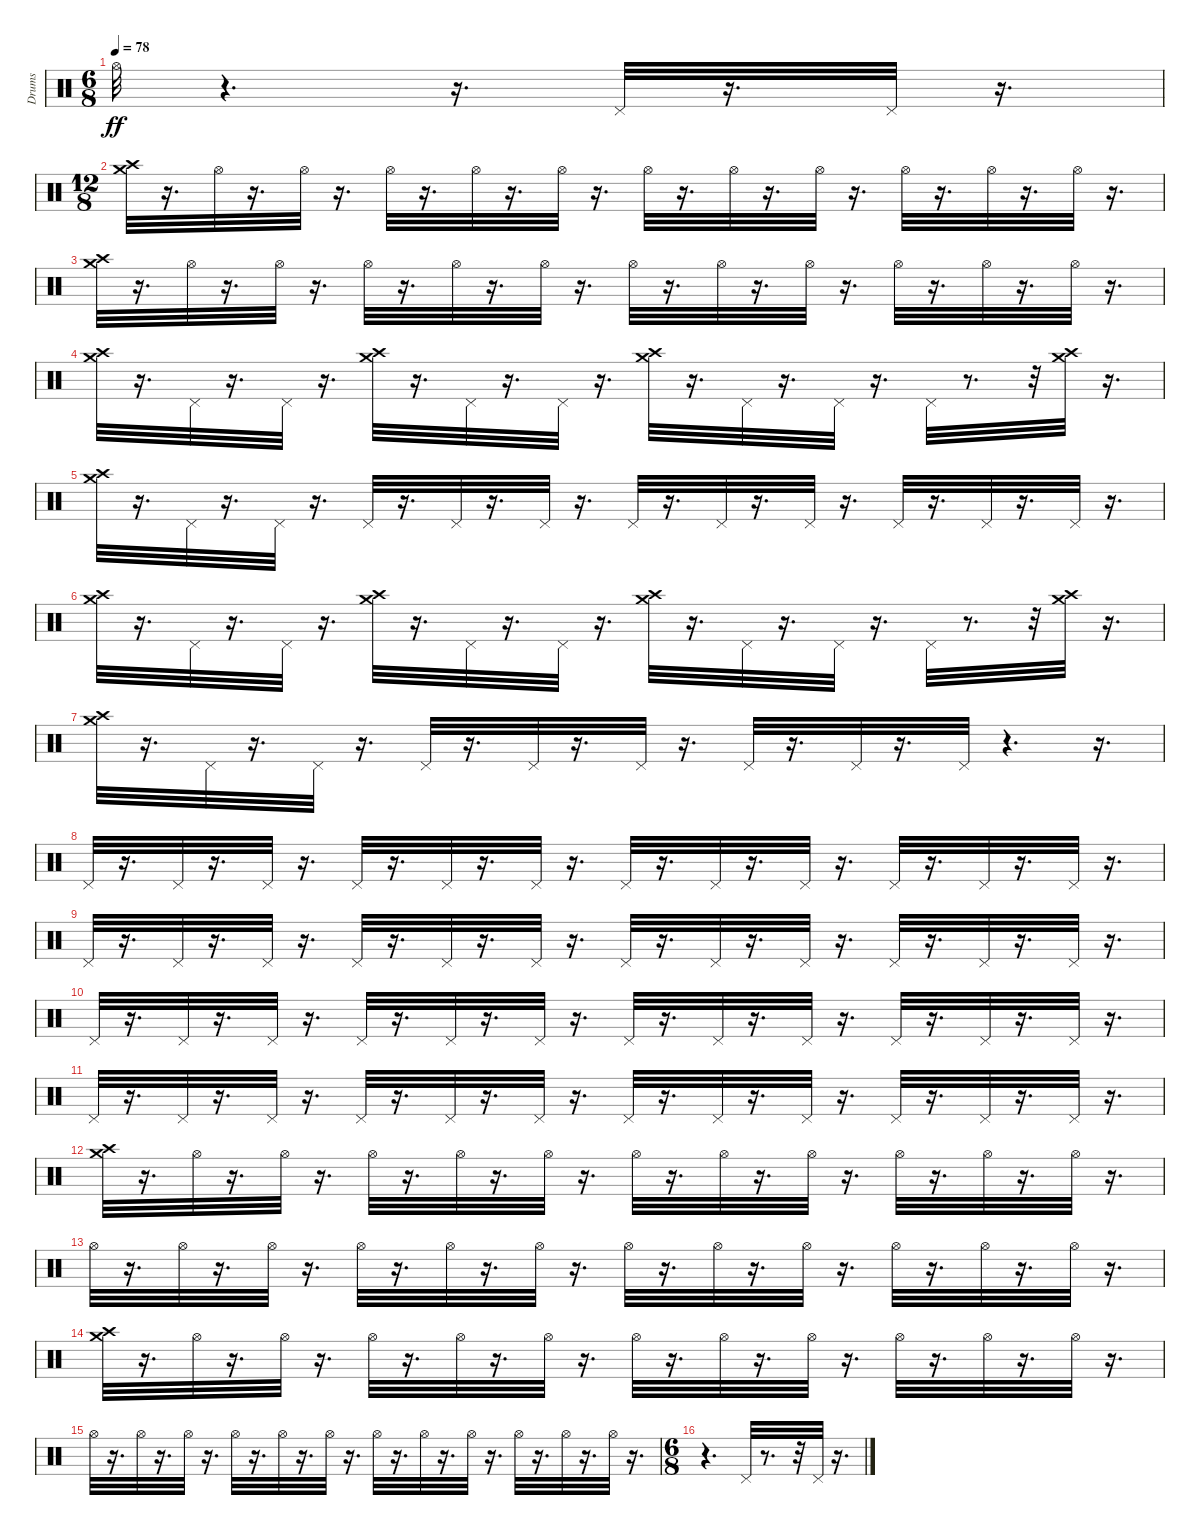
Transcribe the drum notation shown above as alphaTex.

\track ("Drums" "Drums") {instrument percussion}
\staff {score}
\articulation defaults
\ts (6 8)
\tempo 78
\clef neutral
\ks c "Hi-Hat (open)".32{dy ff}
r.4{d} r.16{d} "Pedal Hi-Hat (hit)".32 r.16{d} "Pedal Hi-Hat (hit)".32 r.16{d} |
\ts (12 8)
("Crash medium (hit)" "Crash high (hit)").32 r.16{d} "Hi-Hat (open)".32 r.16{d} "Hi-Hat (open)".32 r.16{d} "Hi-Hat (open)".32 r.16{d} "Hi-Hat (open)".32 r.16{d} "Hi-Hat (open)".32 r.16{d} "Hi-Hat (open)".32 r.16{d} "Hi-Hat (open)".32 r.16{d} "Hi-Hat (open)".32 r.16{d} "Hi-Hat (open)".32 r.16{d} "Hi-Hat (open)".32 r.16{d} "Hi-Hat (open)".32 r.16{d} |
("Crash high (hit)" "Crash medium (hit)").32 r.16{d} "Hi-Hat (open)".32 r.16{d} "Hi-Hat (open)".32 r.16{d} "Hi-Hat (open)".32 r.16{d} "Hi-Hat (open)".32 r.16{d} "Hi-Hat (open)".32 r.16{d} "Hi-Hat (open)".32 r.16{d} "Hi-Hat (open)".32 r.16{d} "Hi-Hat (open)".32 r.16{d} "Hi-Hat (open)".32 r.16{d} "Hi-Hat (open)".32 r.16{d} "Hi-Hat (open)".32 r.16{d} |
("Crash high (hit)" "Crash medium (hit)").32 r.16{d} "Pedal Hi-Hat (hit)".32 r.16{d} "Pedal Hi-Hat (hit)".32 r.16{d} ("Crash medium (hit)" "Crash high (hit)").32 r.16{d} "Pedal Hi-Hat (hit)".32 r.16{d} "Pedal Hi-Hat (hit)".32 r.16{d} ("Crash medium (hit)" "Crash high (hit)").32 r.16{d} "Pedal Hi-Hat (hit)".32 r.16{d} "Pedal Hi-Hat (hit)".32 r.16{d} "Pedal Hi-Hat (hit)".32 r.8{d} r.32 ("Crash high (hit)" "Crash medium (hit)").32 r.16{d} |
("Crash medium (hit)" "Crash high (hit)").32 r.16{d} "Pedal Hi-Hat (hit)".32 r.16{d} "Pedal Hi-Hat (hit)".32 r.16{d} "Pedal Hi-Hat (hit)".32 r.16{d} "Pedal Hi-Hat (hit)".32 r.16{d} "Pedal Hi-Hat (hit)".32 r.16{d} "Pedal Hi-Hat (hit)".32 r.16{d} "Pedal Hi-Hat (hit)".32 r.16{d} "Pedal Hi-Hat (hit)".32 r.16{d} "Pedal Hi-Hat (hit)".32 r.16{d} "Pedal Hi-Hat (hit)".32 r.16{d} "Pedal Hi-Hat (hit)".32 r.16{d} |
("Crash medium (hit)" "Crash high (hit)").32 r.16{d} "Pedal Hi-Hat (hit)".32 r.16{d} "Pedal Hi-Hat (hit)".32 r.16{d} ("Crash medium (hit)" "Crash high (hit)").32 r.16{d} "Pedal Hi-Hat (hit)".32 r.16{d} "Pedal Hi-Hat (hit)".32 r.16{d} ("Crash high (hit)" "Crash medium (hit)").32 r.16{d} "Pedal Hi-Hat (hit)".32 r.16{d} "Pedal Hi-Hat (hit)".32 r.16{d} "Pedal Hi-Hat (hit)".32 r.8{d} r.32 ("Crash medium (hit)" "Crash high (hit)").32 r.16{d} |
("Crash high (hit)" "Crash medium (hit)").32 r.16{d} "Pedal Hi-Hat (hit)".32 r.16{d} "Pedal Hi-Hat (hit)".32 r.16{d} "Pedal Hi-Hat (hit)".32 r.16{d} "Pedal Hi-Hat (hit)".32 r.16{d} "Pedal Hi-Hat (hit)".32 r.16{d} "Pedal Hi-Hat (hit)".32 r.16{d} "Pedal Hi-Hat (hit)".32 r.16{d} "Pedal Hi-Hat (hit)".32 r.4{d} r.16{d} |
"Pedal Hi-Hat (hit)".32 r.16{d} "Pedal Hi-Hat (hit)".32 r.16{d} "Pedal Hi-Hat (hit)".32 r.16{d} "Pedal Hi-Hat (hit)".32 r.16{d} "Pedal Hi-Hat (hit)".32 r.16{d} "Pedal Hi-Hat (hit)".32 r.16{d} "Pedal Hi-Hat (hit)".32 r.16{d} "Pedal Hi-Hat (hit)".32 r.16{d} "Pedal Hi-Hat (hit)".32 r.16{d} "Pedal Hi-Hat (hit)".32 r.16{d} "Pedal Hi-Hat (hit)".32 r.16{d} "Pedal Hi-Hat (hit)".32 r.16{d} |
"Pedal Hi-Hat (hit)".32 r.16{d} "Pedal Hi-Hat (hit)".32 r.16{d} "Pedal Hi-Hat (hit)".32 r.16{d} "Pedal Hi-Hat (hit)".32 r.16{d} "Pedal Hi-Hat (hit)".32 r.16{d} "Pedal Hi-Hat (hit)".32 r.16{d} "Pedal Hi-Hat (hit)".32 r.16{d} "Pedal Hi-Hat (hit)".32 r.16{d} "Pedal Hi-Hat (hit)".32 r.16{d} "Pedal Hi-Hat (hit)".32 r.16{d} "Pedal Hi-Hat (hit)".32 r.16{d} "Pedal Hi-Hat (hit)".32 r.16{d} |
"Pedal Hi-Hat (hit)".32 r.16{d} "Pedal Hi-Hat (hit)".32 r.16{d} "Pedal Hi-Hat (hit)".32 r.16{d} "Pedal Hi-Hat (hit)".32 r.16{d} "Pedal Hi-Hat (hit)".32 r.16{d} "Pedal Hi-Hat (hit)".32 r.16{d} "Pedal Hi-Hat (hit)".32 r.16{d} "Pedal Hi-Hat (hit)".32 r.16{d} "Pedal Hi-Hat (hit)".32 r.16{d} "Pedal Hi-Hat (hit)".32 r.16{d} "Pedal Hi-Hat (hit)".32 r.16{d} "Pedal Hi-Hat (hit)".32 r.16{d} |
"Pedal Hi-Hat (hit)".32 r.16{d} "Pedal Hi-Hat (hit)".32 r.16{d} "Pedal Hi-Hat (hit)".32 r.16{d} "Pedal Hi-Hat (hit)".32 r.16{d} "Pedal Hi-Hat (hit)".32 r.16{d} "Pedal Hi-Hat (hit)".32 r.16{d} "Pedal Hi-Hat (hit)".32 r.16{d} "Pedal Hi-Hat (hit)".32 r.16{d} "Pedal Hi-Hat (hit)".32 r.16{d} "Pedal Hi-Hat (hit)".32 r.16{d} "Pedal Hi-Hat (hit)".32 r.16{d} "Pedal Hi-Hat (hit)".32 r.16{d} |
("Crash high (hit)" "Crash medium (hit)").32 r.16{d} "Hi-Hat (open)".32 r.16{d} "Hi-Hat (open)".32 r.16{d} "Hi-Hat (open)".32 r.16{d} "Hi-Hat (open)".32 r.16{d} "Hi-Hat (open)".32 r.16{d} "Hi-Hat (open)".32 r.16{d} "Hi-Hat (open)".32 r.16{d} "Hi-Hat (open)".32 r.16{d} "Hi-Hat (open)".32 r.16{d} "Hi-Hat (open)".32 r.16{d} "Hi-Hat (open)".32 r.16{d} |
"Hi-Hat (open)".32 r.16{d} "Hi-Hat (open)".32 r.16{d} "Hi-Hat (open)".32 r.16{d} "Hi-Hat (open)".32 r.16{d} "Hi-Hat (open)".32 r.16{d} "Hi-Hat (open)".32 r.16{d} "Hi-Hat (open)".32 r.16{d} "Hi-Hat (open)".32 r.16{d} "Hi-Hat (open)".32 r.16{d} "Hi-Hat (open)".32 r.16{d} "Hi-Hat (open)".32 r.16{d} "Hi-Hat (open)".32 r.16{d} |
("Crash high (hit)" "Crash medium (hit)").32 r.16{d} "Hi-Hat (open)".32 r.16{d} "Hi-Hat (open)".32 r.16{d} "Hi-Hat (open)".32 r.16{d} "Hi-Hat (open)".32 r.16{d} "Hi-Hat (open)".32 r.16{d} "Hi-Hat (open)".32 r.16{d} "Hi-Hat (open)".32 r.16{d} "Hi-Hat (open)".32 r.16{d} "Hi-Hat (open)".32 r.16{d} "Hi-Hat (open)".32 r.16{d} "Hi-Hat (open)".32 r.16{d} |
"Hi-Hat (open)".32 r.16{d} "Hi-Hat (open)".32 r.16{d} "Hi-Hat (open)".32 r.16{d} "Hi-Hat (open)".32 r.16{d} "Hi-Hat (open)".32 r.16{d} "Hi-Hat (open)".32 r.16{d} "Hi-Hat (open)".32 r.16{d} "Hi-Hat (open)".32 r.16{d} "Hi-Hat (open)".32 r.16{d} "Hi-Hat (open)".32 r.16{d} "Hi-Hat (open)".32 r.16{d} "Hi-Hat (open)".32 r.16{d} |
\ts (6 8)
r.4{d} "Pedal Hi-Hat (hit)".32 r.8{d} r.32 "Pedal Hi-Hat (hit)".32 r.16{d}
